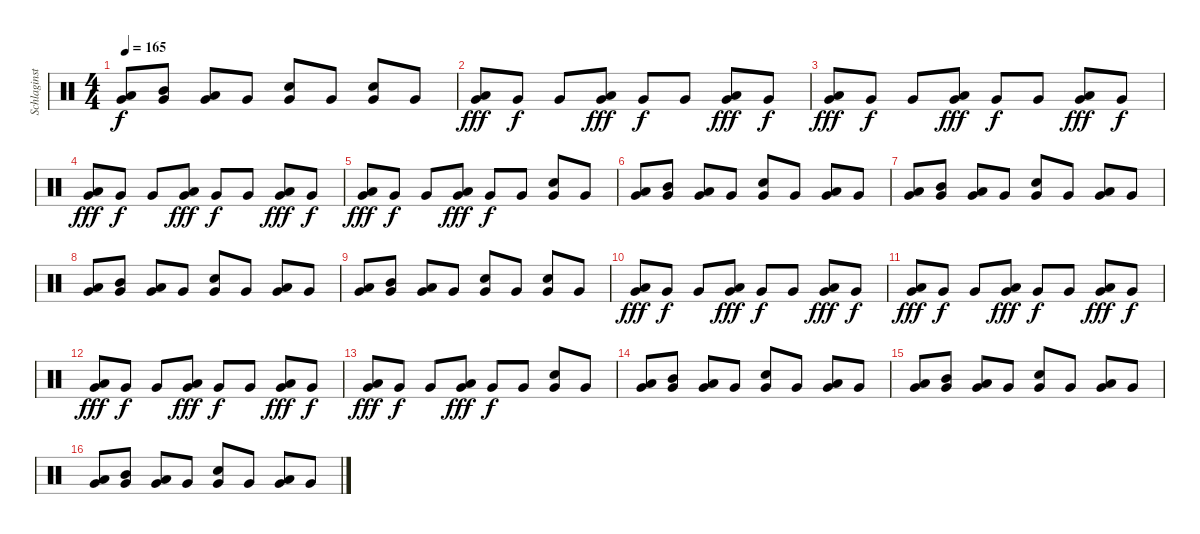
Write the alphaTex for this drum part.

\track ("Schlaginstrumente - Auswahl" "Schlaginst") {instrument percussion}
\staff {score}
\articulation defaults
\ts (4 4)
\tempo 165
\clef neutral
\ks c
("Very Low Tom (hit)" "Low Tom (hit)").8{dy f} ("Very Low Tom (hit)" "Mid Tom (hit)").8 ("Very Low Tom (hit)" "Low Floor Tom (hit)").8 "Very Low Tom (hit)".8 ("Very Low Tom (hit)" "Electric Snare (hit)").8 "Very Low Tom (hit)".8 ("Very Low Tom (hit)" "Electric Snare (hit)").8 "Very Low Tom (hit)".8 |
("Very Low Tom (hit)" "Low Floor Tom (hit)").8{dy fff} "Very Low Tom (hit)".8{dy f} "Very Low Tom (hit)".8 ("Very Low Tom (hit)" "Low Floor Tom (hit)").8{dy fff} "Very Low Tom (hit)".8{dy f} "Very Low Tom (hit)".8 ("Very Low Tom (hit)" "Low Floor Tom (hit)").8{dy fff} "Very Low Tom (hit)".8{dy f} |
("Very Low Tom (hit)" "Low Floor Tom (hit)").8{dy fff} "Very Low Tom (hit)".8{dy f} "Very Low Tom (hit)".8 ("Very Low Tom (hit)" "Low Floor Tom (hit)").8{dy fff} "Very Low Tom (hit)".8{dy f} "Very Low Tom (hit)".8 ("Very Low Tom (hit)" "Low Floor Tom (hit)").8{dy fff} "Very Low Tom (hit)".8{dy f} |
("Very Low Tom (hit)" "Low Floor Tom (hit)").8{dy fff} "Very Low Tom (hit)".8{dy f} "Very Low Tom (hit)".8 ("Very Low Tom (hit)" "Low Floor Tom (hit)").8{dy fff} "Very Low Tom (hit)".8{dy f} "Very Low Tom (hit)".8 ("Very Low Tom (hit)" "Low Floor Tom (hit)").8{dy fff} "Very Low Tom (hit)".8{dy f} |
("Very Low Tom (hit)" "Low Floor Tom (hit)").8{dy fff} "Very Low Tom (hit)".8{dy f} "Very Low Tom (hit)".8 ("Very Low Tom (hit)" "Low Floor Tom (hit)").8{dy fff} "Very Low Tom (hit)".8{dy f} "Very Low Tom (hit)".8 ("Very Low Tom (hit)" "Electric Snare (hit)").8 "Very Low Tom (hit)".8 |
("Very Low Tom (hit)" "Low Tom (hit)").8 ("Very Low Tom (hit)" "Mid Tom (hit)").8 ("Very Low Tom (hit)" "Low Floor Tom (hit)").8 "Very Low Tom (hit)".8 ("Very Low Tom (hit)" "Electric Snare (hit)").8 "Very Low Tom (hit)".8 ("Very Low Tom (hit)" "Low Floor Tom (hit)").8 "Very Low Tom (hit)".8 |
("Very Low Tom (hit)" "Low Tom (hit)").8 ("Very Low Tom (hit)" "Mid Tom (hit)").8 ("Very Low Tom (hit)" "Low Floor Tom (hit)").8 "Very Low Tom (hit)".8 ("Very Low Tom (hit)" "Electric Snare (hit)").8 "Very Low Tom (hit)".8 ("Very Low Tom (hit)" "Low Floor Tom (hit)").8 "Very Low Tom (hit)".8 |
("Very Low Tom (hit)" "Low Tom (hit)").8 ("Very Low Tom (hit)" "Mid Tom (hit)").8 ("Very Low Tom (hit)" "Low Floor Tom (hit)").8 "Very Low Tom (hit)".8 ("Very Low Tom (hit)" "Electric Snare (hit)").8 "Very Low Tom (hit)".8 ("Very Low Tom (hit)" "Low Floor Tom (hit)").8 "Very Low Tom (hit)".8 |
("Very Low Tom (hit)" "Low Tom (hit)").8 ("Very Low Tom (hit)" "Mid Tom (hit)").8 ("Very Low Tom (hit)" "Low Floor Tom (hit)").8 "Very Low Tom (hit)".8 ("Very Low Tom (hit)" "Electric Snare (hit)").8 "Very Low Tom (hit)".8 ("Very Low Tom (hit)" "Electric Snare (hit)").8 "Very Low Tom (hit)".8 |
("Very Low Tom (hit)" "Low Floor Tom (hit)").8{dy fff} "Very Low Tom (hit)".8{dy f} "Very Low Tom (hit)".8 ("Very Low Tom (hit)" "Low Floor Tom (hit)").8{dy fff} "Very Low Tom (hit)".8{dy f} "Very Low Tom (hit)".8 ("Very Low Tom (hit)" "Low Floor Tom (hit)").8{dy fff} "Very Low Tom (hit)".8{dy f} |
("Very Low Tom (hit)" "Low Floor Tom (hit)").8{dy fff} "Very Low Tom (hit)".8{dy f} "Very Low Tom (hit)".8 ("Very Low Tom (hit)" "Low Floor Tom (hit)").8{dy fff} "Very Low Tom (hit)".8{dy f} "Very Low Tom (hit)".8 ("Very Low Tom (hit)" "Low Floor Tom (hit)").8{dy fff} "Very Low Tom (hit)".8{dy f} |
("Very Low Tom (hit)" "Low Floor Tom (hit)").8{dy fff} "Very Low Tom (hit)".8{dy f} "Very Low Tom (hit)".8 ("Very Low Tom (hit)" "Low Floor Tom (hit)").8{dy fff} "Very Low Tom (hit)".8{dy f} "Very Low Tom (hit)".8 ("Very Low Tom (hit)" "Low Floor Tom (hit)").8{dy fff} "Very Low Tom (hit)".8{dy f} |
("Very Low Tom (hit)" "Low Floor Tom (hit)").8{dy fff} "Very Low Tom (hit)".8{dy f} "Very Low Tom (hit)".8 ("Very Low Tom (hit)" "Low Floor Tom (hit)").8{dy fff} "Very Low Tom (hit)".8{dy f} "Very Low Tom (hit)".8 ("Very Low Tom (hit)" "Electric Snare (hit)").8 "Very Low Tom (hit)".8 |
("Very Low Tom (hit)" "Low Tom (hit)").8 ("Very Low Tom (hit)" "Mid Tom (hit)").8 ("Very Low Tom (hit)" "Low Floor Tom (hit)").8 "Very Low Tom (hit)".8 ("Very Low Tom (hit)" "Electric Snare (hit)").8 "Very Low Tom (hit)".8 ("Very Low Tom (hit)" "Low Floor Tom (hit)").8 "Very Low Tom (hit)".8 |
("Very Low Tom (hit)" "Low Tom (hit)").8 ("Very Low Tom (hit)" "Mid Tom (hit)").8 ("Very Low Tom (hit)" "Low Floor Tom (hit)").8 "Very Low Tom (hit)".8 ("Very Low Tom (hit)" "Electric Snare (hit)").8 "Very Low Tom (hit)".8 ("Very Low Tom (hit)" "Low Floor Tom (hit)").8 "Very Low Tom (hit)".8 |
("Very Low Tom (hit)" "Low Tom (hit)").8 ("Very Low Tom (hit)" "Mid Tom (hit)").8 ("Very Low Tom (hit)" "Low Floor Tom (hit)").8 "Very Low Tom (hit)".8 ("Very Low Tom (hit)" "Electric Snare (hit)").8 "Very Low Tom (hit)".8 ("Very Low Tom (hit)" "Low Floor Tom (hit)").8 "Very Low Tom (hit)".8
